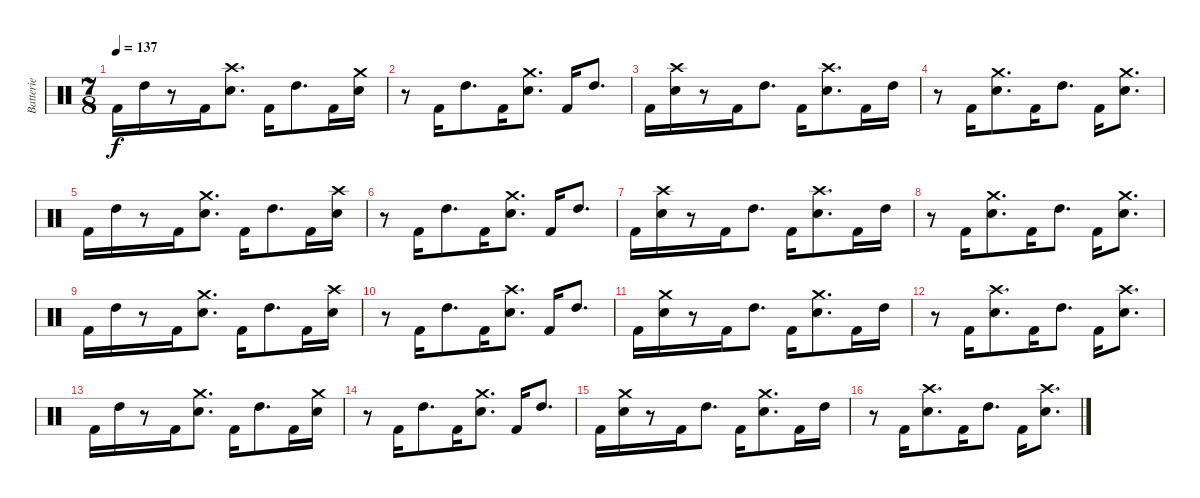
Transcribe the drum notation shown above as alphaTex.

\track ("Batterie" "Batterie") {instrument percussion}
\staff {score}
\articulation defaults
\ts (7 8)
\tempo 137
\clef neutral
\ks c "Kick (hit) 2".16{dy f} "High Tom (hit)".16
r.8 "Kick (hit) 2".16 ("Snare (hit) 2" "Crash high (hit)").8{d} "Kick (hit) 2".16 "High Tom (hit)".8{d} "Kick (hit) 2".16 ("Snare (hit) 2" "Crash medium (hit)").16 |
r.8 "Kick (hit) 2".16 "High Tom (hit)".8{d} "Kick (hit) 2".16 ("Snare (hit) 2" "Crash medium (hit)").8{d} "Kick (hit) 2".16 "High Tom (hit)".8{d} |
"Kick (hit) 2".16 ("Snare (hit) 2" "Crash high (hit)").16 r.8 "Kick (hit) 2".16 "High Tom (hit)".8{d} "Kick (hit) 2".16 ("Snare (hit) 2" "Crash high (hit)").8{d} "Kick (hit) 2".16 "High Tom (hit)".16 |
r.8{volume 9} "Kick (hit) 2".16 ("Snare (hit) 2" "Crash medium (hit)").8{d} "Kick (hit) 2".16 "High Tom (hit)".8{d} "Kick (hit) 2".16 ("Snare (hit) 2" "Crash medium (hit)").8{d} |
"Kick (hit) 2".16 "High Tom (hit)".16 r.8 "Kick (hit) 2".16 ("Snare (hit) 2" "Crash medium (hit)").8{d} "Kick (hit) 2".16 "High Tom (hit)".8{d} "Kick (hit) 2".16 ("Snare (hit) 2" "Crash high (hit)").16 |
r.8 "Kick (hit) 2".16 "High Tom (hit)".8{d} "Kick (hit) 2".16 ("Snare (hit) 2" "Crash medium (hit)").8{d} "Kick (hit) 2".16 "High Tom (hit)".8{d} |
"Kick (hit) 2".16 ("Snare (hit) 2" "Crash high (hit)").16 r.8 "Kick (hit) 2".16 "High Tom (hit)".8{d} "Kick (hit) 2".16 ("Snare (hit) 2" "Crash high (hit)").8{d} "Kick (hit) 2".16 "High Tom (hit)".16 |
r.8 "Kick (hit) 2".16 ("Snare (hit) 2" "Crash medium (hit)").8{d} "Kick (hit) 2".16 "High Tom (hit)".8{d} "Kick (hit) 2".16 ("Snare (hit) 2" "Crash medium (hit)").8{d} |
"Kick (hit) 2".16{volume 4} "High Tom (hit)".16 r.8 "Kick (hit) 2".16 ("Snare (hit) 2" "Crash medium (hit)").8{d} "Kick (hit) 2".16 "High Tom (hit)".8{d} "Kick (hit) 2".16 ("Snare (hit) 2" "Crash high (hit)").16 |
r.8 "Kick (hit) 2".16 "High Tom (hit)".8{d} "Kick (hit) 2".16 ("Snare (hit) 2" "Crash high (hit)").8{d} "Kick (hit) 2".16 "High Tom (hit)".8{d} |
"Kick (hit) 2".16 ("Snare (hit) 2" "Crash medium (hit)").16 r.8 "Kick (hit) 2".16 "High Tom (hit)".8{d} "Kick (hit) 2".16 ("Snare (hit) 2" "Crash medium (hit)").8{d} "Kick (hit) 2".16 "High Tom (hit)".16 |
r.8 "Kick (hit) 2".16 ("Snare (hit) 2" "Crash high (hit)").8{d} "Kick (hit) 2".16 "High Tom (hit)".8{d} "Kick (hit) 2".16 ("Snare (hit) 2" "Crash high (hit)").8{d} |
"Kick (hit) 2".16 "High Tom (hit)".16 r.8 "Kick (hit) 2".16 ("Snare (hit) 2" "Crash medium (hit)").8{d} "Kick (hit) 2".16 "High Tom (hit)".8{d} "Kick (hit) 2".16 ("Snare (hit) 2" "Crash medium (hit)").16 |
r.8{volume 0} "Kick (hit) 2".16 "High Tom (hit)".8{d} "Kick (hit) 2".16 ("Snare (hit) 2" "Crash medium (hit)").8{d} "Kick (hit) 2".16 "High Tom (hit)".8{d} |
"Kick (hit) 2".16 ("Snare (hit) 2" "Crash medium (hit)").16 r.8 "Kick (hit) 2".16 "High Tom (hit)".8{d} "Kick (hit) 2".16 ("Snare (hit) 2" "Crash medium (hit)").8{d} "Kick (hit) 2".16 "High Tom (hit)".16 |
r.8 "Kick (hit) 2".16 ("Snare (hit) 2" "Crash high (hit)").8{d} "Kick (hit) 2".16 "High Tom (hit)".8{d} "Kick (hit) 2".16 ("Snare (hit) 2" "Crash high (hit)").8{d}
